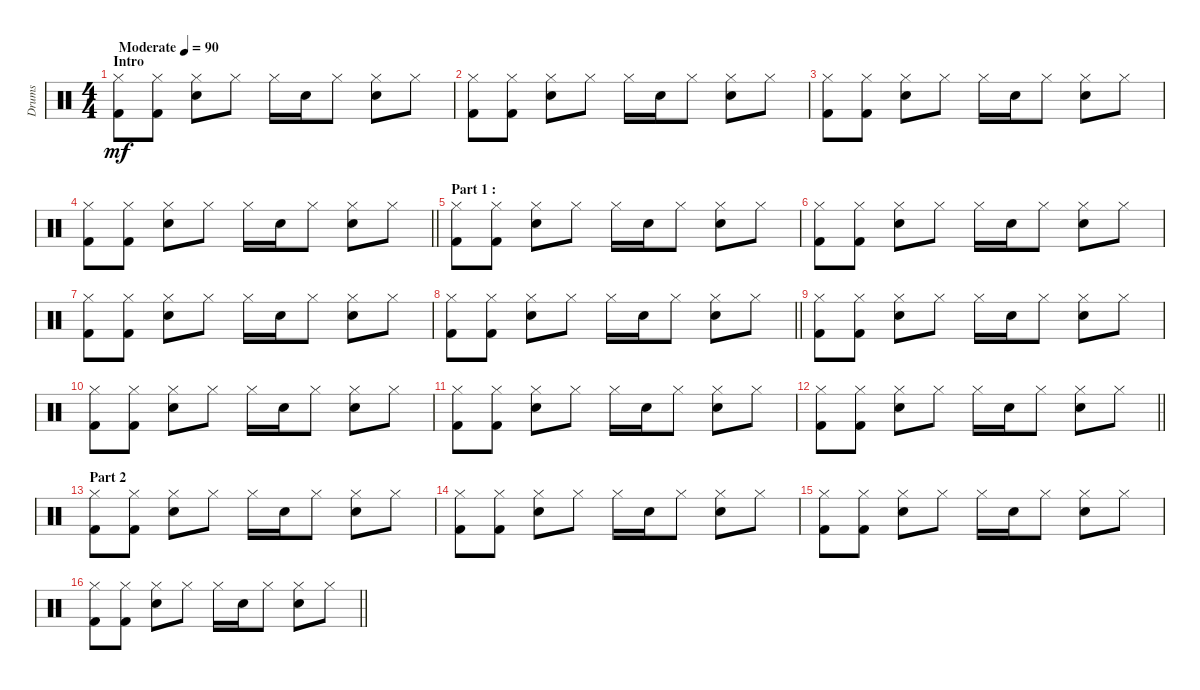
\track ("Drums" "Drums") {instrument percussion}
\staff {score}
\articulation defaults
\ts (4 4)
\section ("" "Intro")
\tempo (90 "Moderate")
\clef neutral
\ks c
("Hi-Hat (closed)" "Kick (hit) 2").8{dy mf} ("Hi-Hat (closed)" "Kick (hit) 2").8 ("Hi-Hat (closed)" "Snare (hit) 2").8 "Hi-Hat (closed)".8 "Hi-Hat (closed)".16 "Snare (hit) 2".16 "Hi-Hat (closed)".8 ("Hi-Hat (closed)" "Snare (hit) 2").8 "Hi-Hat (closed)".8 |
("Hi-Hat (closed)" "Kick (hit) 2").8 ("Hi-Hat (closed)" "Kick (hit) 2").8 ("Hi-Hat (closed)" "Snare (hit) 2").8 "Hi-Hat (closed)".8 "Hi-Hat (closed)".16 "Snare (hit) 2".16 "Hi-Hat (closed)".8 ("Hi-Hat (closed)" "Snare (hit) 2").8 "Hi-Hat (closed)".8 |
("Hi-Hat (closed)" "Kick (hit) 2").8 ("Hi-Hat (closed)" "Kick (hit) 2").8 ("Hi-Hat (closed)" "Snare (hit) 2").8 "Hi-Hat (closed)".8 "Hi-Hat (closed)".16 "Snare (hit) 2".16 "Hi-Hat (closed)".8 ("Hi-Hat (closed)" "Snare (hit) 2").8 "Hi-Hat (closed)".8 |
\barLineRight lightlight
("Hi-Hat (closed)" "Kick (hit) 2").8 ("Hi-Hat (closed)" "Kick (hit) 2").8 ("Hi-Hat (closed)" "Snare (hit) 2").8 "Hi-Hat (closed)".8 "Hi-Hat (closed)".16 "Snare (hit) 2".16 "Hi-Hat (closed)".8 ("Hi-Hat (closed)" "Snare (hit) 2").8 "Hi-Hat (closed)".8 |
\section ("" "Part 1 :")
("Hi-Hat (closed)" "Kick (hit) 2").8 ("Hi-Hat (closed)" "Kick (hit) 2").8 ("Hi-Hat (closed)" "Snare (hit) 2").8 "Hi-Hat (closed)".8 "Hi-Hat (closed)".16 "Snare (hit) 2".16 "Hi-Hat (closed)".8 ("Hi-Hat (closed)" "Snare (hit) 2").8 "Hi-Hat (closed)".8 |
("Hi-Hat (closed)" "Kick (hit) 2").8 ("Hi-Hat (closed)" "Kick (hit) 2").8 ("Hi-Hat (closed)" "Snare (hit) 2").8 "Hi-Hat (closed)".8 "Hi-Hat (closed)".16 "Snare (hit) 2".16 "Hi-Hat (closed)".8 ("Hi-Hat (closed)" "Snare (hit) 2").8 "Hi-Hat (closed)".8 |
("Hi-Hat (closed)" "Kick (hit) 2").8 ("Hi-Hat (closed)" "Kick (hit) 2").8 ("Hi-Hat (closed)" "Snare (hit) 2").8 "Hi-Hat (closed)".8 "Hi-Hat (closed)".16 "Snare (hit) 2".16 "Hi-Hat (closed)".8 ("Hi-Hat (closed)" "Snare (hit) 2").8 "Hi-Hat (closed)".8 |
\barLineRight lightlight
("Hi-Hat (closed)" "Kick (hit) 2").8 ("Hi-Hat (closed)" "Kick (hit) 2").8 ("Hi-Hat (closed)" "Snare (hit) 2").8 "Hi-Hat (closed)".8 "Hi-Hat (closed)".16 "Snare (hit) 2".16 "Hi-Hat (closed)".8 ("Hi-Hat (closed)" "Snare (hit) 2").8 "Hi-Hat (closed)".8 |
("Hi-Hat (closed)" "Kick (hit) 2").8 ("Hi-Hat (closed)" "Kick (hit) 2").8 ("Hi-Hat (closed)" "Snare (hit) 2").8 "Hi-Hat (closed)".8 "Hi-Hat (closed)".16 "Snare (hit) 2".16 "Hi-Hat (closed)".8 ("Hi-Hat (closed)" "Snare (hit) 2").8 "Hi-Hat (closed)".8 |
("Hi-Hat (closed)" "Kick (hit) 2").8 ("Hi-Hat (closed)" "Kick (hit) 2").8 ("Hi-Hat (closed)" "Snare (hit) 2").8 "Hi-Hat (closed)".8 "Hi-Hat (closed)".16 "Snare (hit) 2".16 "Hi-Hat (closed)".8 ("Hi-Hat (closed)" "Snare (hit) 2").8 "Hi-Hat (closed)".8 |
("Hi-Hat (closed)" "Kick (hit) 2").8 ("Hi-Hat (closed)" "Kick (hit) 2").8 ("Hi-Hat (closed)" "Snare (hit) 2").8 "Hi-Hat (closed)".8 "Hi-Hat (closed)".16 "Snare (hit) 2".16 "Hi-Hat (closed)".8 ("Hi-Hat (closed)" "Snare (hit) 2").8 "Hi-Hat (closed)".8 |
\barLineRight lightlight
("Hi-Hat (closed)" "Kick (hit) 2").8 ("Hi-Hat (closed)" "Kick (hit) 2").8 ("Hi-Hat (closed)" "Snare (hit) 2").8 "Hi-Hat (closed)".8 "Hi-Hat (closed)".16 "Snare (hit) 2".16 "Hi-Hat (closed)".8 ("Hi-Hat (closed)" "Snare (hit) 2").8 "Hi-Hat (closed)".8 |
\section ("" "Part 2")
("Hi-Hat (closed)" "Kick (hit) 2").8 ("Hi-Hat (closed)" "Kick (hit) 2").8 ("Hi-Hat (closed)" "Snare (hit) 2").8 "Hi-Hat (closed)".8 "Hi-Hat (closed)".16 "Snare (hit) 2".16 "Hi-Hat (closed)".8 ("Hi-Hat (closed)" "Snare (hit) 2").8 "Hi-Hat (closed)".8 |
("Hi-Hat (closed)" "Kick (hit) 2").8 ("Hi-Hat (closed)" "Kick (hit) 2").8 ("Hi-Hat (closed)" "Snare (hit) 2").8 "Hi-Hat (closed)".8 "Hi-Hat (closed)".16 "Snare (hit) 2".16 "Hi-Hat (closed)".8 ("Hi-Hat (closed)" "Snare (hit) 2").8 "Hi-Hat (closed)".8 |
("Hi-Hat (closed)" "Kick (hit) 2").8 ("Hi-Hat (closed)" "Kick (hit) 2").8 ("Hi-Hat (closed)" "Snare (hit) 2").8 "Hi-Hat (closed)".8 "Hi-Hat (closed)".16 "Snare (hit) 2".16 "Hi-Hat (closed)".8 ("Hi-Hat (closed)" "Snare (hit) 2").8 "Hi-Hat (closed)".8 |
\barLineRight lightlight
("Hi-Hat (closed)" "Kick (hit) 2").8 ("Hi-Hat (closed)" "Kick (hit) 2").8 ("Hi-Hat (closed)" "Snare (hit) 2").8 "Hi-Hat (closed)".8 "Hi-Hat (closed)".16 "Snare (hit) 2".16 "Hi-Hat (closed)".8 ("Hi-Hat (closed)" "Snare (hit) 2").8 "Hi-Hat (closed)".8
